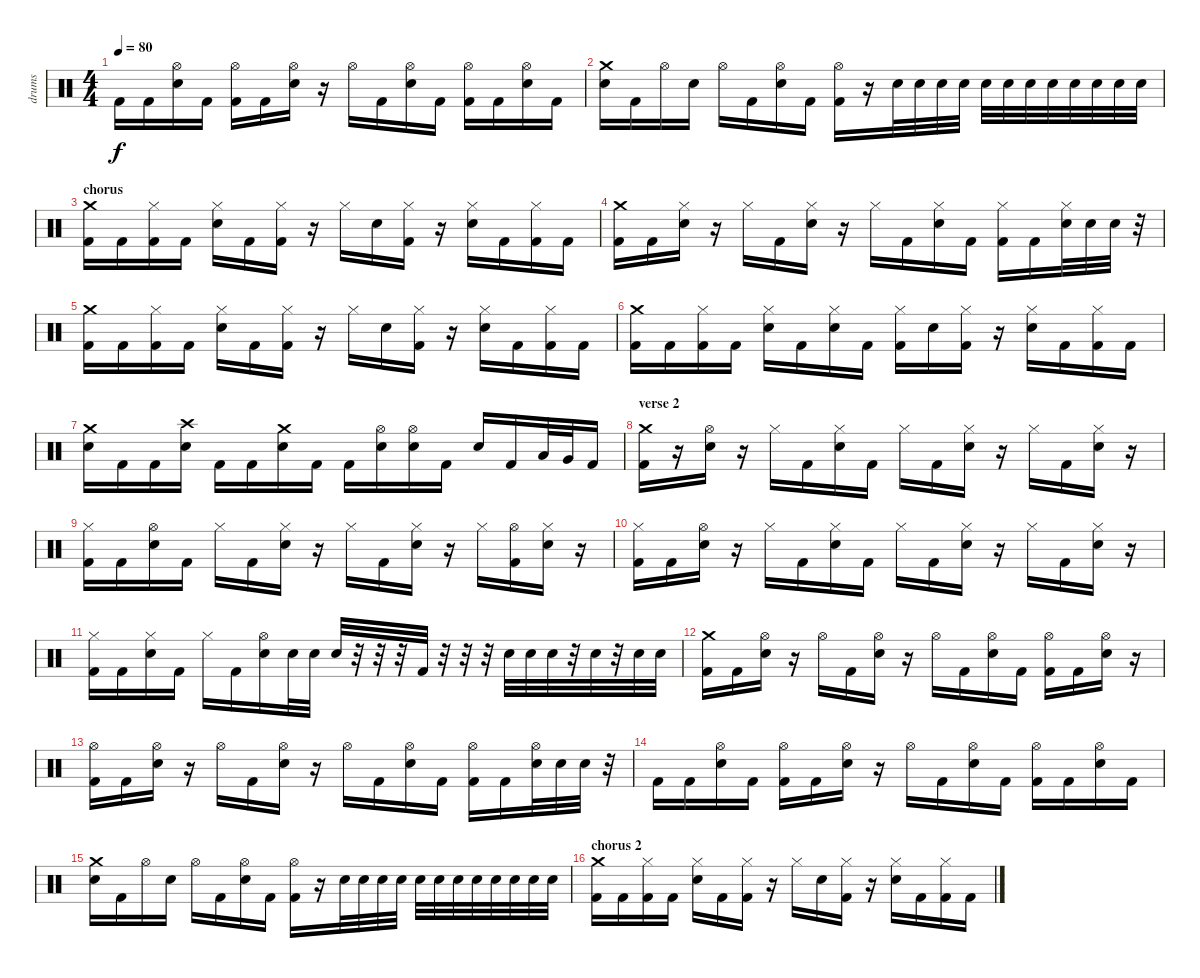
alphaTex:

\track ("drums" "drums") {instrument percussion}
\staff {score}
\articulation defaults
\ts (4 4)
\tempo 80
\clef neutral
\ks c "Kick (hit) 2".16{dy f} "Kick (hit) 2".16
("Hi-Hat (open)" "Electric Snare (hit)").16 "Kick (hit) 2".16 ("Hi-Hat (open)" "Kick (hit) 2").16 "Kick (hit) 2".16 ("Hi-Hat (open)" "Electric Snare (hit)").16 r.16 "Hi-Hat (open)".16 "Kick (hit) 2".16 ("Hi-Hat (open)" "Electric Snare (hit)").16 "Kick (hit) 2".16 ("Hi-Hat (open)" "Kick (hit) 2").16 "Kick (hit) 2".16 ("Hi-Hat (open)" "Electric Snare (hit)").16 "Kick (hit) 2".16 |
("Crash medium (hit)" "Electric Snare (hit)").16 "Kick (hit) 2".16 "Hi-Hat (open)".16 "Electric Snare (hit)".16 "Hi-Hat (open)".16 "Kick (hit) 2".16 ("Hi-Hat (open)" "Electric Snare (hit)").16 "Kick (hit) 2".16 ("Hi-Hat (open)" "Kick (hit) 2").16 r.16 "Electric Snare (hit)".32 "Electric Snare (hit)".32 "Electric Snare (hit)".32 "Electric Snare (hit)".32 "Electric Snare (hit)".32 "Electric Snare (hit)".32 "Electric Snare (hit)".32 "Electric Snare (hit)".32 "Electric Snare (hit)".32 "Electric Snare (hit)".32 "Electric Snare (hit)".32 "Electric Snare (hit)".32 |
\section ("" "chorus")
("Crash medium (hit)" "Kick (hit) 2").16 "Kick (hit) 2".16 ("Hi-Hat (closed)" "Kick (hit) 2").16 "Kick (hit) 2".16 ("Hi-Hat (closed)" "Electric Snare (hit)").16 "Kick (hit) 2".16 ("Hi-Hat (closed)" "Kick (hit) 2").16 r.16 "Hi-Hat (closed)".16 "Electric Snare (hit)".16 ("Hi-Hat (closed)" "Kick (hit) 2").16 r.16 ("Hi-Hat (closed)" "Electric Snare (hit)").16 "Kick (hit) 2".16 ("Hi-Hat (closed)" "Kick (hit) 2").16 "Kick (hit) 2".16 |
("Crash medium (hit)" "Kick (hit) 2").16 "Kick (hit) 2".16 ("Hi-Hat (closed)" "Electric Snare (hit)").16 r.16 "Hi-Hat (closed)".16 "Kick (hit) 2".16 ("Hi-Hat (closed)" "Electric Snare (hit)").16 r.16 "Hi-Hat (closed)".16 "Kick (hit) 2".16 ("Hi-Hat (closed)" "Electric Snare (hit)").16 "Kick (hit) 2".16 ("Hi-Hat (closed)" "Kick (hit) 2").16 "Kick (hit) 2".16 ("Hi-Hat (closed)" "Electric Snare (hit)").32 "Electric Snare (hit)".32 "Electric Snare (hit)".32 r.32 |
("Crash medium (hit)" "Kick (hit) 2").16 "Kick (hit) 2".16 ("Hi-Hat (closed)" "Kick (hit) 2").16 "Kick (hit) 2".16 ("Hi-Hat (closed)" "Electric Snare (hit)").16 "Kick (hit) 2".16 ("Hi-Hat (closed)" "Kick (hit) 2").16 r.16 "Hi-Hat (closed)".16 "Electric Snare (hit)".16 ("Hi-Hat (closed)" "Kick (hit) 2").16 r.16 ("Hi-Hat (closed)" "Electric Snare (hit)").16 "Kick (hit) 2".16 ("Hi-Hat (closed)" "Kick (hit) 2").16 "Kick (hit) 2".16 |
("Crash medium (hit)" "Kick (hit) 2").16 "Kick (hit) 2".16 ("Hi-Hat (closed)" "Kick (hit) 2").16 "Kick (hit) 2".16 ("Hi-Hat (closed)" "Electric Snare (hit)").16 "Kick (hit) 2".16 ("Hi-Hat (closed)" "Electric Snare (hit)").16 "Kick (hit) 2".16 ("Hi-Hat (closed)" "Kick (hit) 2").16 "Electric Snare (hit)".16 ("Hi-Hat (closed)" "Kick (hit) 2").16 r.16 ("Hi-Hat (closed)" "Electric Snare (hit)").16 "Kick (hit) 2".16 ("Hi-Hat (closed)" "Kick (hit) 2").16 "Kick (hit) 2".16 |
("Crash medium (hit)" "Electric Snare (hit)").16 "Kick (hit) 2".16 "Kick (hit) 2".16 ("Crash high (hit)" "Electric Snare (hit)").16 "Kick (hit) 2".16 "Kick (hit) 2".16 ("Crash medium (hit)" "Electric Snare (hit)").16 "Kick (hit) 2".16 "Kick (hit) 2".16 ("Hi-Hat (open)" "Electric Snare (hit)").16 ("Hi-Hat (open)" "Electric Snare (hit)").16 "Kick (hit) 2".16 "Electric Snare (hit)".16 "Kick (hit) 2".16 "Low Floor Tom (hit)".32 "Very Low Tom (hit)".32 "Kick (hit) 2".16 |
\section ("" "verse 2")
("Crash medium (hit)" "Kick (hit) 2").16 r.16 ("Hi-Hat (open)" "Electric Snare (hit)").16 r.16 "Hi-Hat (closed)".16 "Kick (hit) 2".16 ("Hi-Hat (closed)" "Electric Snare (hit)").16 "Kick (hit) 2".16 "Hi-Hat (closed)".16 "Kick (hit) 2".16 ("Hi-Hat (closed)" "Electric Snare (hit)").16 r.16 "Hi-Hat (closed)".16 "Kick (hit) 2".16 ("Hi-Hat (closed)" "Electric Snare (hit)").16 r.16 |
("Hi-Hat (closed)" "Kick (hit) 2").16 "Kick (hit) 2".16 ("Hi-Hat (open)" "Electric Snare (hit)").16 "Kick (hit) 2".16 "Hi-Hat (closed)".16 "Kick (hit) 2".16 ("Hi-Hat (closed)" "Electric Snare (hit)").16 r.16 "Hi-Hat (closed)".16 "Kick (hit) 2".16 ("Hi-Hat (closed)" "Electric Snare (hit)").16 r.16 "Hi-Hat (closed)".16 ("Hi-Hat (open)" "Kick (hit) 2").16 ("Hi-Hat (closed)" "Electric Snare (hit)").16 r.16 |
("Hi-Hat (closed)" "Kick (hit) 2").16 "Kick (hit) 2".16 ("Hi-Hat (open)" "Electric Snare (hit)").16 r.16 "Hi-Hat (closed)".16 "Kick (hit) 2".16 ("Hi-Hat (closed)" "Electric Snare (hit)").16 "Kick (hit) 2".16 "Hi-Hat (closed)".16 "Kick (hit) 2".16 ("Hi-Hat (closed)" "Electric Snare (hit)").16 r.16 "Hi-Hat (closed)".16 "Kick (hit) 2".16 ("Hi-Hat (closed)" "Electric Snare (hit)").16 r.16 |
("Hi-Hat (closed)" "Kick (hit) 2").16 "Kick (hit) 2".16 ("Hi-Hat (closed)" "Electric Snare (hit)").16 "Kick (hit) 2".16 "Hi-Hat (closed)".16 "Kick (hit) 2".16 ("Hi-Hat (open)" "Electric Snare (hit)").16 "Electric Snare (hit)".32 "Electric Snare (hit)".32 "Electric Snare (hit)".32 r.32 r.32 r.32 "Kick (hit) 2".32 r.32 r.32 r.32 "Electric Snare (hit)".32 "Electric Snare (hit)".32 "Electric Snare (hit)".32 r.32 "Electric Snare (hit)".32 r.32 "Electric Snare (hit)".32 "Electric Snare (hit)".32 |
("Crash medium (hit)" "Kick (hit) 2").16 "Kick (hit) 2".16 ("Hi-Hat (open)" "Electric Snare (hit)").16 r.16 "Hi-Hat (open)".16 "Kick (hit) 2".16 ("Hi-Hat (open)" "Electric Snare (hit)").16 r.16 "Hi-Hat (open)".16 "Kick (hit) 2".16 ("Hi-Hat (open)" "Electric Snare (hit)").16 "Kick (hit) 2".16 ("Hi-Hat (open)" "Kick (hit) 2").16 "Kick (hit) 2".16 ("Hi-Hat (open)" "Electric Snare (hit)").16 r.16 |
("Hi-Hat (open)" "Kick (hit) 2").16 "Kick (hit) 2".16 ("Hi-Hat (open)" "Electric Snare (hit)").16 r.16 "Hi-Hat (open)".16 "Kick (hit) 2".16 ("Hi-Hat (open)" "Electric Snare (hit)").16 r.16 "Hi-Hat (open)".16 "Kick (hit) 2".16 ("Hi-Hat (open)" "Electric Snare (hit)").16 "Kick (hit) 2".16 ("Hi-Hat (open)" "Kick (hit) 2").16 "Kick (hit) 2".16 ("Hi-Hat (open)" "Electric Snare (hit)").32 "Electric Snare (hit)".32 "Electric Snare (hit)".32 r.32 |
"Kick (hit) 2".16 "Kick (hit) 2".16 ("Hi-Hat (open)" "Electric Snare (hit)").16 "Kick (hit) 2".16 ("Hi-Hat (open)" "Kick (hit) 2").16 "Kick (hit) 2".16 ("Hi-Hat (open)" "Electric Snare (hit)").16 r.16 "Hi-Hat (open)".16 "Kick (hit) 2".16 ("Hi-Hat (open)" "Electric Snare (hit)").16 "Kick (hit) 2".16 ("Hi-Hat (open)" "Kick (hit) 2").16 "Kick (hit) 2".16 ("Hi-Hat (open)" "Electric Snare (hit)").16 "Kick (hit) 2".16 |
("Crash medium (hit)" "Electric Snare (hit)").16 "Kick (hit) 2".16 "Hi-Hat (open)".16 "Electric Snare (hit)".16 "Hi-Hat (open)".16 "Kick (hit) 2".16 ("Hi-Hat (open)" "Electric Snare (hit)").16 "Kick (hit) 2".16 ("Hi-Hat (open)" "Kick (hit) 2").16 r.16 "Electric Snare (hit)".32 "Electric Snare (hit)".32 "Electric Snare (hit)".32 "Electric Snare (hit)".32 "Electric Snare (hit)".32 "Electric Snare (hit)".32 "Electric Snare (hit)".32 "Electric Snare (hit)".32 "Electric Snare (hit)".32 "Electric Snare (hit)".32 "Electric Snare (hit)".32 "Electric Snare (hit)".32 |
\section ("" "chorus 2")
("Crash medium (hit)" "Kick (hit) 2").16 "Kick (hit) 2".16 ("Hi-Hat (closed)" "Kick (hit) 2").16 "Kick (hit) 2".16 ("Hi-Hat (closed)" "Electric Snare (hit)").16 "Kick (hit) 2".16 ("Hi-Hat (closed)" "Kick (hit) 2").16 r.16 "Hi-Hat (closed)".16 "Electric Snare (hit)".16 ("Hi-Hat (closed)" "Kick (hit) 2").16 r.16 ("Hi-Hat (closed)" "Electric Snare (hit)").16 "Kick (hit) 2".16 ("Hi-Hat (closed)" "Kick (hit) 2").16 "Kick (hit) 2".16
